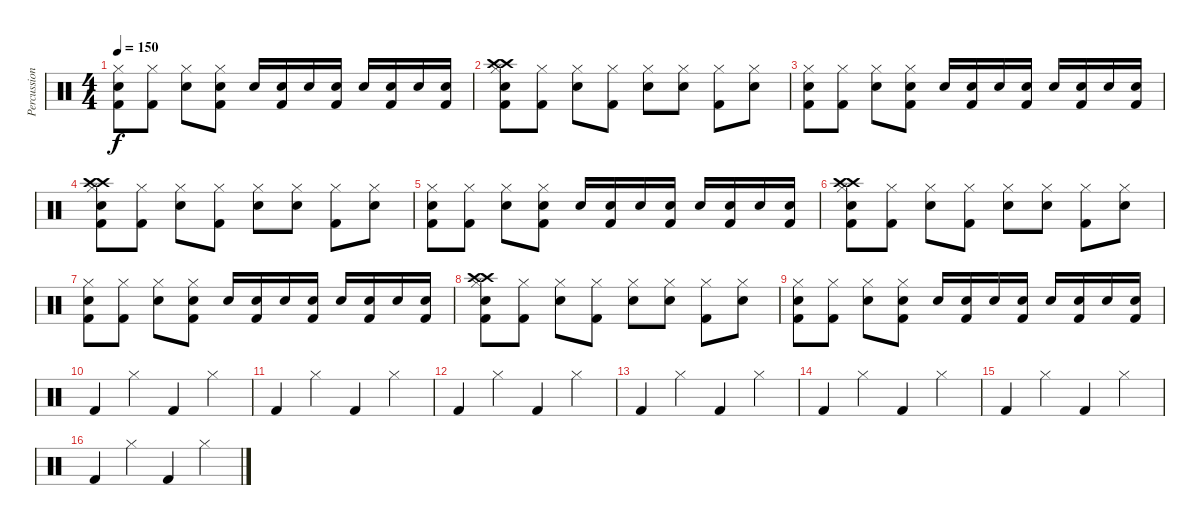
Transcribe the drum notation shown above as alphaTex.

\track ("Percussion" "Percussion") {instrument percussion}
\staff {score}
\articulation defaults
\ts (4 4)
\tempo 150
\clef neutral
\ks c
("Hi-Hat (closed)" "Electric Snare (hit)" "Kick (hit) 2").8{dy f} ("Hi-Hat (closed)" "Kick (hit) 2").8 ("Hi-Hat (closed)" "Snare (hit) 2").8 ("Hi-Hat (closed)" "Electric Snare (hit)" "Kick (hit) 2").8 "Electric Snare (hit)".16 ("Electric Snare (hit)" "Kick (hit) 2").16 "Electric Snare (hit)".16 ("Electric Snare (hit)" "Kick (hit) 2").16 "Electric Snare (hit)".16 ("Electric Snare (hit)" "Kick (hit) 2").16 "Electric Snare (hit)".16 ("Electric Snare (hit)" "Kick (hit) 2").16 |
("Crash high (hit)" "Crash high (hit)" "Hi-Hat (closed)" "Snare (hit) 2" "Kick (hit) 2").8 ("Hi-Hat (closed)" "Kick (hit) 2").8 ("Hi-Hat (closed)" "Electric Snare (hit)").8 ("Hi-Hat (closed)" "Kick (hit) 2").8 ("Hi-Hat (closed)" "Snare (hit) 2").8 ("Hi-Hat (closed)" "Electric Snare (hit)").8 ("Hi-Hat (closed)" "Kick (hit) 2").8 ("Hi-Hat (closed)" "Snare (hit) 2").8 |
("Hi-Hat (closed)" "Electric Snare (hit)" "Kick (hit) 2").8 ("Hi-Hat (closed)" "Kick (hit) 2").8 ("Hi-Hat (closed)" "Snare (hit) 2").8 ("Hi-Hat (closed)" "Electric Snare (hit)" "Kick (hit) 2").8 "Electric Snare (hit)".16 ("Electric Snare (hit)" "Kick (hit) 2").16 "Electric Snare (hit)".16 ("Electric Snare (hit)" "Kick (hit) 2").16 "Electric Snare (hit)".16 ("Electric Snare (hit)" "Kick (hit) 2").16 "Electric Snare (hit)".16 ("Electric Snare (hit)" "Kick (hit) 2").16 |
("Crash high (hit)" "Crash high (hit)" "Hi-Hat (closed)" "Snare (hit) 2" "Kick (hit) 2").8 ("Hi-Hat (closed)" "Kick (hit) 2").8 ("Hi-Hat (closed)" "Electric Snare (hit)").8 ("Hi-Hat (closed)" "Kick (hit) 2").8 ("Hi-Hat (closed)" "Snare (hit) 2").8 ("Hi-Hat (closed)" "Electric Snare (hit)").8 ("Hi-Hat (closed)" "Kick (hit) 2").8 ("Hi-Hat (closed)" "Snare (hit) 2").8 |
("Hi-Hat (closed)" "Electric Snare (hit)" "Kick (hit) 2").8 ("Hi-Hat (closed)" "Kick (hit) 2").8 ("Hi-Hat (closed)" "Snare (hit) 2").8 ("Hi-Hat (closed)" "Electric Snare (hit)" "Kick (hit) 2").8 "Electric Snare (hit)".16 ("Electric Snare (hit)" "Kick (hit) 2").16 "Electric Snare (hit)".16 ("Electric Snare (hit)" "Kick (hit) 2").16 "Electric Snare (hit)".16 ("Electric Snare (hit)" "Kick (hit) 2").16 "Electric Snare (hit)".16 ("Electric Snare (hit)" "Kick (hit) 2").16 |
("Crash high (hit)" "Crash high (hit)" "Hi-Hat (closed)" "Snare (hit) 2" "Kick (hit) 2").8 ("Hi-Hat (closed)" "Kick (hit) 2").8 ("Hi-Hat (closed)" "Electric Snare (hit)").8 ("Hi-Hat (closed)" "Kick (hit) 2").8 ("Hi-Hat (closed)" "Snare (hit) 2").8 ("Hi-Hat (closed)" "Electric Snare (hit)").8 ("Hi-Hat (closed)" "Kick (hit) 2").8 ("Hi-Hat (closed)" "Snare (hit) 2").8 |
("Hi-Hat (closed)" "Electric Snare (hit)" "Kick (hit) 2").8 ("Hi-Hat (closed)" "Kick (hit) 2").8 ("Hi-Hat (closed)" "Snare (hit) 2").8 ("Hi-Hat (closed)" "Electric Snare (hit)" "Kick (hit) 2").8 "Electric Snare (hit)".16 ("Electric Snare (hit)" "Kick (hit) 2").16 "Electric Snare (hit)".16 ("Electric Snare (hit)" "Kick (hit) 2").16 "Electric Snare (hit)".16 ("Electric Snare (hit)" "Kick (hit) 2").16 "Electric Snare (hit)".16 ("Electric Snare (hit)" "Kick (hit) 2").16 |
("Crash high (hit)" "Crash high (hit)" "Hi-Hat (closed)" "Snare (hit) 2" "Kick (hit) 2").8 ("Hi-Hat (closed)" "Kick (hit) 2").8 ("Hi-Hat (closed)" "Electric Snare (hit)").8 ("Hi-Hat (closed)" "Kick (hit) 2").8 ("Hi-Hat (closed)" "Snare (hit) 2").8 ("Hi-Hat (closed)" "Electric Snare (hit)").8 ("Hi-Hat (closed)" "Kick (hit) 2").8 ("Hi-Hat (closed)" "Snare (hit) 2").8 |
("Hi-Hat (closed)" "Electric Snare (hit)" "Kick (hit) 2").8 ("Hi-Hat (closed)" "Kick (hit) 2").8 ("Hi-Hat (closed)" "Snare (hit) 2").8 ("Hi-Hat (closed)" "Electric Snare (hit)" "Kick (hit) 2").8 "Electric Snare (hit)".16 ("Electric Snare (hit)" "Kick (hit) 2").16 "Electric Snare (hit)".16 ("Electric Snare (hit)" "Kick (hit) 2").16 "Electric Snare (hit)".16 ("Electric Snare (hit)" "Kick (hit) 2").16 "Electric Snare (hit)".16 ("Electric Snare (hit)" "Kick (hit) 2").16 |
"Kick (hit) 2".4 "Hi-Hat (closed)".4 "Kick (hit) 2".4 "Hi-Hat (closed)".4 |
"Kick (hit) 2".4 "Hi-Hat (closed)".4 "Kick (hit) 2".4 "Hi-Hat (closed)".4 |
"Kick (hit) 2".4 "Hi-Hat (closed)".4 "Kick (hit) 2".4 "Hi-Hat (closed)".4 |
"Kick (hit) 2".4 "Hi-Hat (closed)".4 "Kick (hit) 2".4 "Hi-Hat (closed)".4 |
"Kick (hit) 2".4 "Hi-Hat (closed)".4 "Kick (hit) 2".4 "Hi-Hat (closed)".4 |
"Kick (hit) 2".4 "Hi-Hat (closed)".4 "Kick (hit) 2".4 "Hi-Hat (closed)".4 |
"Kick (hit) 2".4 "Hi-Hat (closed)".4 "Kick (hit) 2".4 "Hi-Hat (closed)".4
